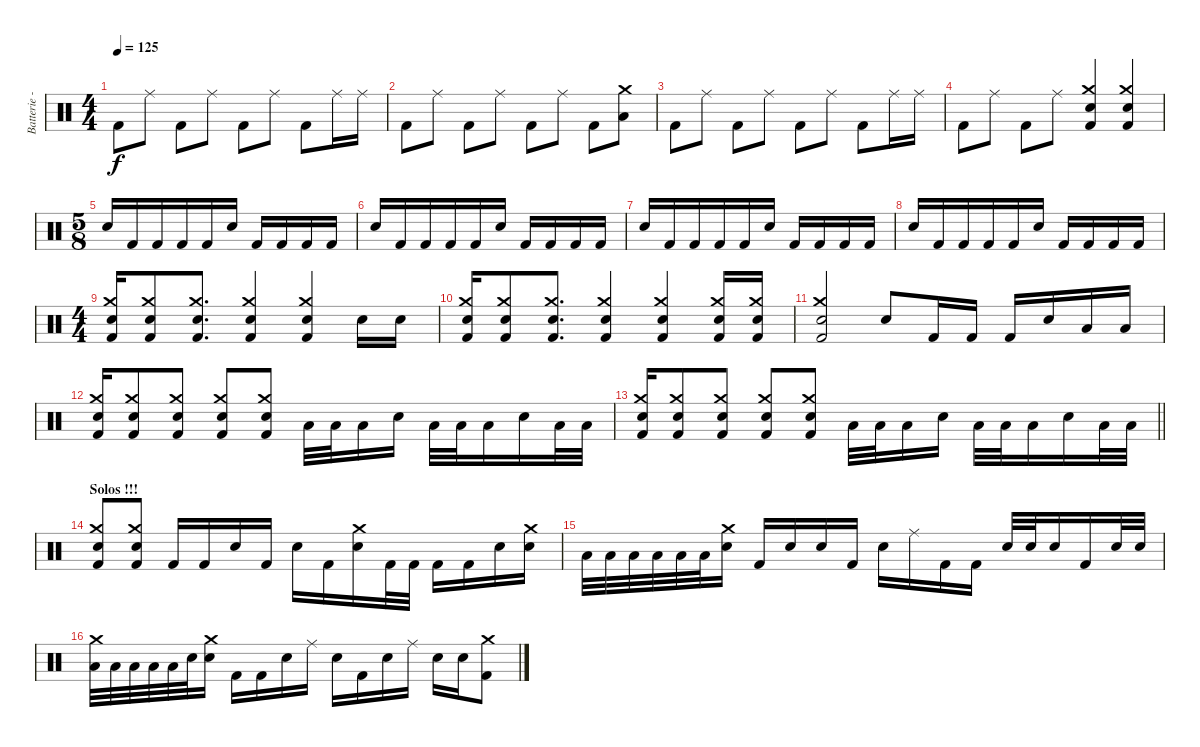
\track ("Batterie - Shane Gaalaas" "Batterie -") {instrument percussion}
\staff {score}
\articulation defaults
\ts (4 4)
\tempo 125
\clef neutral
\ks c "Kick (hit) 2".8{dy f} "Ride (middle)".8 "Kick (hit) 2".8 "Ride (middle)".8 "Kick (hit) 2".8 "Ride (middle)".8 "Kick (hit) 2".8 "Ride (middle)".16 "Ride (middle)".16
|
"Kick (hit) 2".8 "Ride (middle)".8 "Kick (hit) 2".8 "Ride (middle)".8 "Kick (hit) 2".8 "Ride (middle)".8 "Kick (hit) 2".8 ("Crash medium (hit)" "Low Tom (hit)").8 |
"Kick (hit) 2".8 "Ride (middle)".8 "Kick (hit) 2".8 "Ride (middle)".8 "Kick (hit) 2".8 "Ride (middle)".8 "Kick (hit) 2".8 "Ride (middle)".16 "Ride (middle)".16 |
"Kick (hit) 2".8 "Ride (middle)".8 "Kick (hit) 2".8 "Ride (middle)".8 ("Crash medium (hit)" "Electric Snare (hit)" "Kick (hit) 2").4 ("Crash medium (hit)" "Electric Snare (hit)" "Kick (hit) 2").4 |
\ts (5 8)
"Electric Snare (hit)".16 "Kick (hit) 2".16 "Kick (hit) 2".16 "Kick (hit) 2".16 "Kick (hit) 2".16 "Electric Snare (hit)".16 "Kick (hit) 2".16 "Kick (hit) 2".16 "Kick (hit) 2".16 "Kick (hit) 2".16 |
"Electric Snare (hit)".16 "Kick (hit) 2".16 "Kick (hit) 2".16 "Kick (hit) 2".16 "Kick (hit) 2".16 "Electric Snare (hit)".16 "Kick (hit) 2".16 "Kick (hit) 2".16 "Kick (hit) 2".16 "Kick (hit) 2".16 |
"Electric Snare (hit)".16 "Kick (hit) 2".16 "Kick (hit) 2".16 "Kick (hit) 2".16 "Kick (hit) 2".16 "Electric Snare (hit)".16 "Kick (hit) 2".16 "Kick (hit) 2".16 "Kick (hit) 2".16 "Kick (hit) 2".16 |
"Electric Snare (hit)".16 "Kick (hit) 2".16 "Kick (hit) 2".16 "Kick (hit) 2".16 "Kick (hit) 2".16 "Electric Snare (hit)".16 "Kick (hit) 2".16 "Kick (hit) 2".16 "Kick (hit) 2".16 "Kick (hit) 2".16 |
\ts (4 4)
("Crash medium (hit)" "Electric Snare (hit)" "Kick (hit) 2").16 ("Crash medium (hit)" "Electric Snare (hit)" "Kick (hit) 2").8 ("Crash medium (hit)" "Electric Snare (hit)" "Kick (hit) 2").8{d} ("Crash medium (hit)" "Electric Snare (hit)" "Kick (hit) 2").4 ("Crash medium (hit)" "Electric Snare (hit)" "Kick (hit) 2").4 "Electric Snare (hit)".16 "Electric Snare (hit)".16 |
("Crash medium (hit)" "Electric Snare (hit)" "Kick (hit) 2").16 ("Crash medium (hit)" "Electric Snare (hit)" "Kick (hit) 2").8 ("Crash medium (hit)" "Electric Snare (hit)" "Kick (hit) 2").8{d} ("Crash medium (hit)" "Electric Snare (hit)" "Kick (hit) 2").4 ("Crash medium (hit)" "Electric Snare (hit)" "Kick (hit) 2").4 ("Crash medium (hit)" "Electric Snare (hit)" "Kick (hit) 2").16 ("Crash medium (hit)" "Electric Snare (hit)" "Kick (hit) 2").16 |
("Crash medium (hit)" "Electric Snare (hit)" "Kick (hit) 2").2 "Electric Snare (hit)".8 "Kick (hit) 2".16 "Kick (hit) 2".16 "Kick (hit) 2".16 "Electric Snare (hit)".16 "Low Tom (hit)".16 "Low Tom (hit)".16 |
("Crash medium (hit)" "Electric Snare (hit)" "Kick (hit) 2").16 ("Crash medium (hit)" "Electric Snare (hit)" "Kick (hit) 2").8 ("Crash medium (hit)" "Electric Snare (hit)" "Kick (hit) 2").8 ("Crash medium (hit)" "Electric Snare (hit)" "Kick (hit) 2").8 ("Crash medium (hit)" "Electric Snare (hit)" "Kick (hit) 2").8 "Low Tom (hit)".32 "Low Tom (hit)".32 "Low Tom (hit)".16 "Electric Snare (hit)".16 "Low Tom (hit)".32 "Low Tom (hit)".32 "Low Tom (hit)".16 "Electric Snare (hit)".16 "Low Tom (hit)".32 "Low Tom (hit)".32 |
\barLineRight lightlight
("Crash medium (hit)" "Electric Snare (hit)" "Kick (hit) 2").16 ("Crash medium (hit)" "Electric Snare (hit)" "Kick (hit) 2").8 ("Crash medium (hit)" "Electric Snare (hit)" "Kick (hit) 2").8 ("Crash medium (hit)" "Electric Snare (hit)" "Kick (hit) 2").8 ("Crash medium (hit)" "Electric Snare (hit)" "Kick (hit) 2").8 "Low Tom (hit)".32 "Low Tom (hit)".32 "Low Tom (hit)".16 "Electric Snare (hit)".16 "Low Tom (hit)".32 "Low Tom (hit)".32 "Low Tom (hit)".16 "Electric Snare (hit)".16 "Low Tom (hit)".32 "Low Tom (hit)".32 |
\section ("" "Solos !!!")
("Crash medium (hit)" "Electric Snare (hit)" "Kick (hit) 2").8 ("Crash medium (hit)" "Electric Snare (hit)" "Kick (hit) 2").8 "Kick (hit) 2".16 "Kick (hit) 2".16 "Electric Snare (hit)".16 "Kick (hit) 2".16 "Electric Snare (hit)".16 "Kick (hit) 2".16 ("Crash medium (hit)" "Electric Snare (hit)").16 "Kick (hit) 2".32 "Kick (hit) 2".32 "Kick (hit) 2".16 "Kick (hit) 2".16 "Electric Snare (hit)".16 ("Crash medium (hit)" "Electric Snare (hit)").16 |
"Low Tom (hit)".32 "Low Tom (hit)".32 "Low Tom (hit)".32 "Low Tom (hit)".32 "Low Tom (hit)".32 "Low Tom (hit)".32 ("Crash medium (hit)" "Electric Snare (hit)").16 "Kick (hit) 2".16 "Electric Snare (hit)".16 "Electric Snare (hit)".16 "Kick (hit) 2".16 "Electric Snare (hit)".16 "Ride (middle)".16 "Kick (hit) 2".16 "Kick (hit) 2".16 "Electric Snare (hit)".32 "Electric Snare (hit)".32 "Electric Snare (hit)".16 "Kick (hit) 2".16 "Electric Snare (hit)".32 "Electric Snare (hit)".32 |
("Crash medium (hit)" "Low Tom (hit)").32 "Low Tom (hit)".32 "Low Tom (hit)".32 "Low Tom (hit)".32 "Low Tom (hit)".32 "Electric Snare (hit)".32 ("Crash medium (hit)" "Electric Snare (hit)").16 "Kick (hit) 2".16 "Kick (hit) 2".16 "Electric Snare (hit)".16 "Ride (middle)".16 "Electric Snare (hit)".16 "Kick (hit) 2".16 "Electric Snare (hit)".16 "Ride (middle)".16 "Electric Snare (hit)".16 "Electric Snare (hit)".16 ("Crash medium (hit)" "Kick (hit) 2").8
